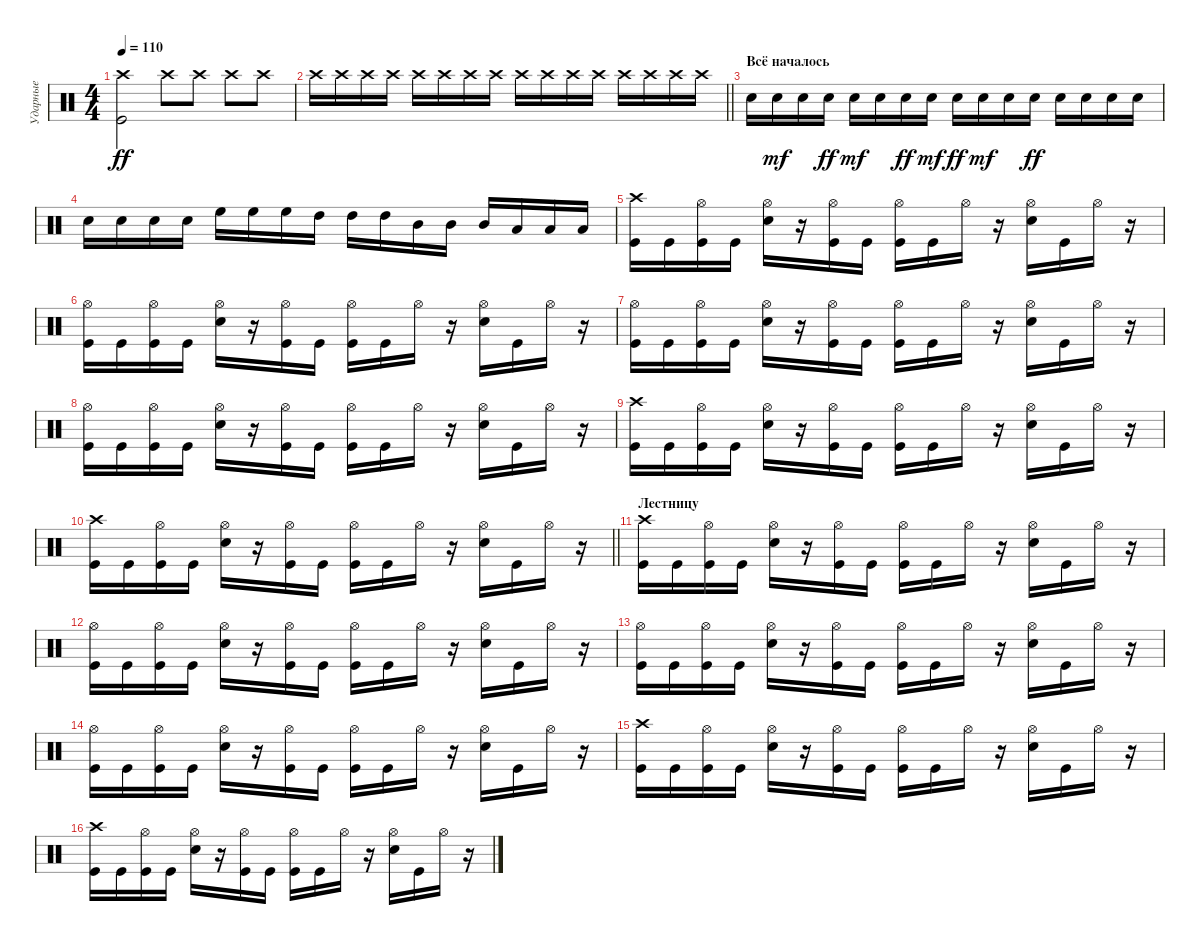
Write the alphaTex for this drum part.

\track ("Ударные" "Ударные") {instrument percussion}
\staff {score}
\articulation defaults
\ts (4 4)
\tempo 110
\clef neutral
\ks c
("Crash high (hit)" "Kick (hit)").2{dy ff} "Crash high (hit)".8 "Crash high (hit)".8 "Crash high (hit)".8 "Crash high (hit)".8 |
\barLineRight lightlight "Crash high (hit)".16 "Crash high (hit)".16 "Crash high (hit)".16 "Crash high (hit)".16 "Crash high (hit)".16 "Crash high (hit)".16 "Crash high (hit)".16 "Crash high (hit)".16 "Crash high (hit)".16 "Crash high (hit)".16 "Crash high (hit)".16 "Crash high (hit)".16 "Crash high (hit)".16 "Crash high (hit)".16 "Crash high (hit)".16 "Crash high (hit)".16
|
\section ("" "Всё началось")
"Snare (hit) 2".16 "Snare (hit) 2".16{dy mf} "Snare (hit) 2".16 "Snare (hit) 2".16{dy ff} "Snare (hit) 2".16{dy mf} "Snare (hit) 2".16 "Snare (hit) 2".16{dy ff} "Snare (hit) 2".16{dy mf} "Snare (hit) 2".16{dy ff} "Snare (hit) 2".16{dy mf} "Snare (hit) 2".16 "Snare (hit) 2".16{dy ff} "Snare (hit) 2".16 "Snare (hit) 2".16 "Snare (hit) 2".16 "Snare (hit) 2".16 |
"Snare (hit) 2".16 "Snare (hit) 2".16 "Snare (hit) 2".16 "Snare (hit) 2".16 "High Floor Tom (hit)".16 "High Floor Tom (hit)".16 "High Floor Tom (hit)".16 "High Tom (hit)".16 "High Tom (hit)".16 "High Tom (hit)".16 "Mid Tom (hit)".16 "Mid Tom (hit)".16 "Mid Tom (hit)".16 "Low Tom (hit)".16 "Low Tom (hit)".16 "Low Tom (hit)".16 |
("Kick (hit)" "Crash high (hit)").16 "Kick (hit)".16 ("Kick (hit)" "Hi-Hat (open)").16 "Kick (hit)".16 ("Snare (hit) 2" "Hi-Hat (open)").16 r.16 ("Kick (hit)" "Hi-Hat (open)").16 "Kick (hit)".16 ("Kick (hit)" "Hi-Hat (open)").16 "Kick (hit)".16 "Hi-Hat (open)".16 r.16 ("Snare (hit) 2" "Hi-Hat (open)").16 "Kick (hit)".16 "Hi-Hat (open)".16 r.16 |
("Kick (hit)" "Hi-Hat (open)").16 "Kick (hit)".16 ("Kick (hit)" "Hi-Hat (open)").16 "Kick (hit)".16 ("Snare (hit) 2" "Hi-Hat (open)").16 r.16 ("Kick (hit)" "Hi-Hat (open)").16 "Kick (hit)".16 ("Kick (hit)" "Hi-Hat (open)").16 "Kick (hit)".16 "Hi-Hat (open)".16 r.16 ("Snare (hit) 2" "Hi-Hat (open)").16 "Kick (hit)".16 "Hi-Hat (open)".16 r.16 |
("Kick (hit)" "Hi-Hat (open)").16 "Kick (hit)".16 ("Kick (hit)" "Hi-Hat (open)").16 "Kick (hit)".16 ("Snare (hit) 2" "Hi-Hat (open)").16 r.16 ("Kick (hit)" "Hi-Hat (open)").16 "Kick (hit)".16 ("Kick (hit)" "Hi-Hat (open)").16 "Kick (hit)".16 "Hi-Hat (open)".16 r.16 ("Snare (hit) 2" "Hi-Hat (open)").16 "Kick (hit)".16 "Hi-Hat (open)".16 r.16 |
("Kick (hit)" "Hi-Hat (open)").16 "Kick (hit)".16 ("Kick (hit)" "Hi-Hat (open)").16 "Kick (hit)".16 ("Snare (hit) 2" "Hi-Hat (open)").16 r.16 ("Kick (hit)" "Hi-Hat (open)").16 "Kick (hit)".16 ("Kick (hit)" "Hi-Hat (open)").16 "Kick (hit)".16 "Hi-Hat (open)".16 r.16 ("Snare (hit) 2" "Hi-Hat (open)").16 "Kick (hit)".16 "Hi-Hat (open)".16 r.16 |
("Kick (hit)" "Crash high (hit)").16 "Kick (hit)".16 ("Kick (hit)" "Hi-Hat (open)").16 "Kick (hit)".16 ("Snare (hit) 2" "Hi-Hat (open)").16 r.16 ("Kick (hit)" "Hi-Hat (open)").16 "Kick (hit)".16 ("Kick (hit)" "Hi-Hat (open)").16 "Kick (hit)".16 "Hi-Hat (open)".16 r.16 ("Snare (hit) 2" "Hi-Hat (open)").16 "Kick (hit)".16 "Hi-Hat (open)".16 r.16 |
\barLineRight lightlight
("Kick (hit)" "Crash high (hit)").16 "Kick (hit)".16 ("Kick (hit)" "Hi-Hat (open)").16 "Kick (hit)".16 ("Snare (hit) 2" "Hi-Hat (open)").16 r.16 ("Kick (hit)" "Hi-Hat (open)").16 "Kick (hit)".16 ("Kick (hit)" "Hi-Hat (open)").16 "Kick (hit)".16 "Hi-Hat (open)".16 r.16 ("Snare (hit) 2" "Hi-Hat (open)").16 "Kick (hit)".16 "Hi-Hat (open)".16 r.16 |
\section ("" "Лестницу")
("Kick (hit)" "Crash high (hit)").16 "Kick (hit)".16 ("Kick (hit)" "Hi-Hat (open)").16 "Kick (hit)".16 ("Snare (hit) 2" "Hi-Hat (open)").16 r.16 ("Kick (hit)" "Hi-Hat (open)").16 "Kick (hit)".16 ("Kick (hit)" "Hi-Hat (open)").16 "Kick (hit)".16 "Hi-Hat (open)".16 r.16 ("Snare (hit) 2" "Hi-Hat (open)").16 "Kick (hit)".16 "Hi-Hat (open)".16 r.16 |
("Kick (hit)" "Hi-Hat (open)").16 "Kick (hit)".16 ("Kick (hit)" "Hi-Hat (open)").16 "Kick (hit)".16 ("Snare (hit) 2" "Hi-Hat (open)").16 r.16 ("Kick (hit)" "Hi-Hat (open)").16 "Kick (hit)".16 ("Kick (hit)" "Hi-Hat (open)").16 "Kick (hit)".16 "Hi-Hat (open)".16 r.16 ("Snare (hit) 2" "Hi-Hat (open)").16 "Kick (hit)".16 "Hi-Hat (open)".16 r.16 |
("Kick (hit)" "Hi-Hat (open)").16 "Kick (hit)".16 ("Kick (hit)" "Hi-Hat (open)").16 "Kick (hit)".16 ("Snare (hit) 2" "Hi-Hat (open)").16 r.16 ("Kick (hit)" "Hi-Hat (open)").16 "Kick (hit)".16 ("Kick (hit)" "Hi-Hat (open)").16 "Kick (hit)".16 "Hi-Hat (open)".16 r.16 ("Snare (hit) 2" "Hi-Hat (open)").16 "Kick (hit)".16 "Hi-Hat (open)".16 r.16 |
("Kick (hit)" "Hi-Hat (open)").16 "Kick (hit)".16 ("Kick (hit)" "Hi-Hat (open)").16 "Kick (hit)".16 ("Snare (hit) 2" "Hi-Hat (open)").16 r.16 ("Kick (hit)" "Hi-Hat (open)").16 "Kick (hit)".16 ("Kick (hit)" "Hi-Hat (open)").16 "Kick (hit)".16 "Hi-Hat (open)".16 r.16 ("Snare (hit) 2" "Hi-Hat (open)").16 "Kick (hit)".16 "Hi-Hat (open)".16 r.16 |
("Kick (hit)" "Crash high (hit)").16 "Kick (hit)".16 ("Kick (hit)" "Hi-Hat (open)").16 "Kick (hit)".16 ("Snare (hit) 2" "Hi-Hat (open)").16 r.16 ("Kick (hit)" "Hi-Hat (open)").16 "Kick (hit)".16 ("Kick (hit)" "Hi-Hat (open)").16 "Kick (hit)".16 "Hi-Hat (open)".16 r.16 ("Snare (hit) 2" "Hi-Hat (open)").16 "Kick (hit)".16 "Hi-Hat (open)".16 r.16 |
("Kick (hit)" "Crash high (hit)").16 "Kick (hit)".16 ("Kick (hit)" "Hi-Hat (open)").16 "Kick (hit)".16 ("Snare (hit) 2" "Hi-Hat (open)").16 r.16 ("Kick (hit)" "Hi-Hat (open)").16 "Kick (hit)".16 ("Kick (hit)" "Hi-Hat (open)").16 "Kick (hit)".16 "Hi-Hat (open)".16 r.16 ("Snare (hit) 2" "Hi-Hat (open)").16 "Kick (hit)".16 "Hi-Hat (open)".16 r.16
